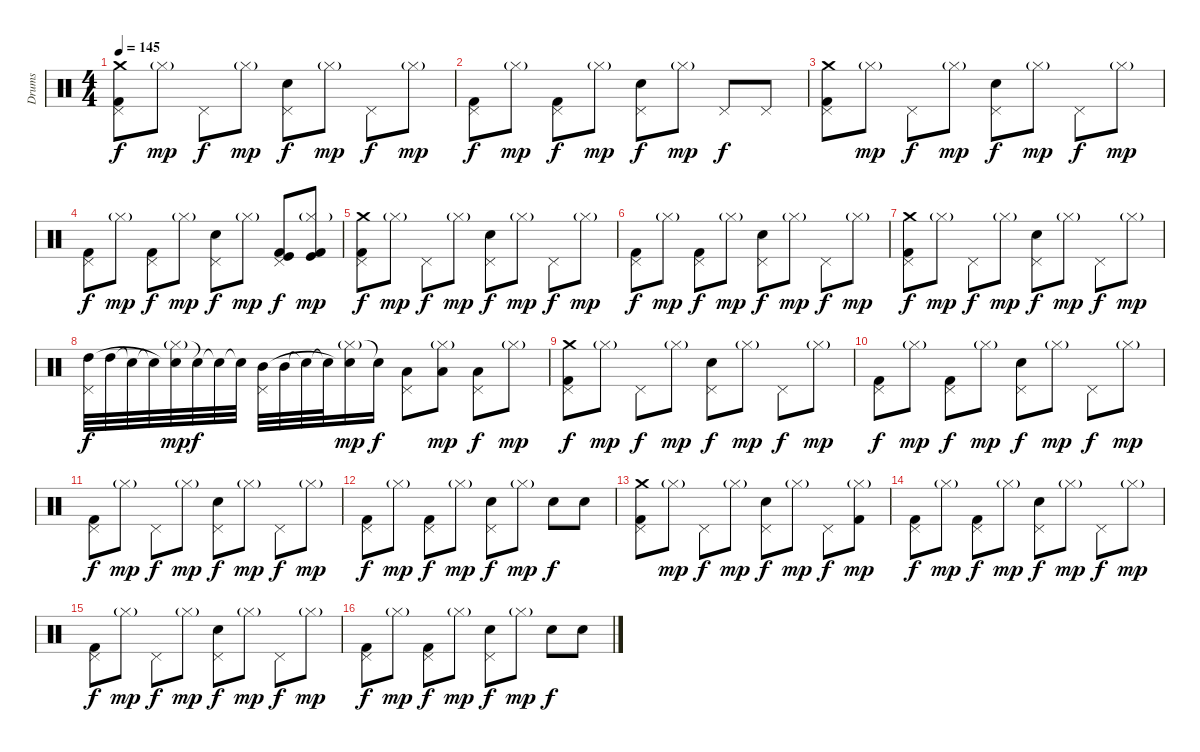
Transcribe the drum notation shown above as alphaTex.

\track ("Drums" "Drums") {instrument percussion}
\staff {score}
\articulation defaults
\ts (4 4)
\tempo 145
\clef neutral
\ks c
("Pedal Hi-Hat (hit)" "Crash medium (hit)" "Kick (hit) 2").8{dy f} "Hi-Hat (closed)"{g}.8{dy mp} "Pedal Hi-Hat (hit)".8{dy f} "Hi-Hat (closed)"{g}.8{dy mp} ("Pedal Hi-Hat (hit)" "Snare (hit) 2").8{dy f} "Hi-Hat (closed)"{g}.8{dy mp} "Pedal Hi-Hat (hit)".8{dy f} "Hi-Hat (closed)"{g}.8{dy mp} |
("Pedal Hi-Hat (hit)" "Kick (hit) 2").8{dy f} "Hi-Hat (closed)"{g}.8{dy mp} ("Pedal Hi-Hat (hit)" "Kick (hit) 2").8{dy f} "Hi-Hat (closed)"{g}.8{dy mp} ("Pedal Hi-Hat (hit)" "Snare (hit) 2").8{dy f} "Hi-Hat (closed)"{g}.8{dy mp} "Pedal Hi-Hat (hit)".8{dy f} "Pedal Hi-Hat (hit)".8 |
("Pedal Hi-Hat (hit)" "Crash medium (hit)" "Kick (hit) 2").8 "Hi-Hat (closed)"{g}.8{dy mp} "Pedal Hi-Hat (hit)".8{dy f} "Hi-Hat (closed)"{g}.8{dy mp} ("Pedal Hi-Hat (hit)" "Snare (hit) 2").8{dy f} "Hi-Hat (closed)"{g}.8{dy mp} "Pedal Hi-Hat (hit)".8{dy f} "Hi-Hat (closed)"{g}.8{dy mp} |
("Pedal Hi-Hat (hit)" "Kick (hit) 2").8{dy f} "Hi-Hat (closed)"{g}.8{dy mp} ("Pedal Hi-Hat (hit)" "Kick (hit) 2").8{dy f} "Hi-Hat (closed)"{g}.8{dy mp} ("Pedal Hi-Hat (hit)" "Snare (hit) 2").8{dy f} "Hi-Hat (closed)"{g}.8{dy mp} ("Pedal Hi-Hat (hit)" "Kick (hit)" "Kick (hit) 2").8{dy f} ("Hi-Hat (closed)"{g} "Kick (hit)" "Kick (hit) 2").8{dy mp} |
("Pedal Hi-Hat (hit)" "Crash medium (hit)" "Kick (hit) 2").8{dy f} "Hi-Hat (closed)"{g}.8{dy mp} "Pedal Hi-Hat (hit)".8{dy f} "Hi-Hat (closed)"{g}.8{dy mp} ("Pedal Hi-Hat (hit)" "Snare (hit) 2").8{dy f} "Hi-Hat (closed)"{g}.8{dy mp} "Pedal Hi-Hat (hit)".8{dy f} "Hi-Hat (closed)"{g}.8{dy mp} |
("Pedal Hi-Hat (hit)" "Kick (hit) 2").8{dy f} "Hi-Hat (closed)"{g}.8{dy mp} ("Pedal Hi-Hat (hit)" "Kick (hit) 2").8{dy f} "Hi-Hat (closed)"{g}.8{dy mp} ("Pedal Hi-Hat (hit)" "Snare (hit) 2").8{dy f} "Hi-Hat (closed)"{g}.8{dy mp} "Pedal Hi-Hat (hit)".8{dy f} "Hi-Hat (closed)"{g}.8{dy mp} |
("Pedal Hi-Hat (hit)" "Crash medium (hit)" "Kick (hit) 2").8{dy f} "Hi-Hat (closed)"{g}.8{dy mp} "Pedal Hi-Hat (hit)".8{dy f} "Hi-Hat (closed)"{g}.8{dy mp} ("Pedal Hi-Hat (hit)" "Snare (hit) 2").8{dy f} "Hi-Hat (closed)"{g}.8{dy mp} "Pedal Hi-Hat (hit)".8{dy f} "Hi-Hat (closed)"{g}.8{dy mp} |
("Pedal Hi-Hat (hit)" "High Tom (hit)").32{dy f} "High Tom (hit)".32 "Snare (hit)"{t}.32 "Snare (hit)"{t}.32 ("Hi-Hat (closed)"{g} "Snare (hit)"{t}).32{dy mp} "Snare (hit)"{t}.32{dy f} "Snare (hit)"{t}.32 "Snare (hit)"{t}.32 ("Pedal Hi-Hat (hit)" "Mid Tom (hit)").32 "Mid Tom (hit)".32 "Snare (hit)"{t}.32 "Snare (hit)"{t}.32 ("Hi-Hat (closed)"{g} "Snare (hit)"{t}).16{dy mp} "Snare (hit)"{t}.16{dy f} ("Pedal Hi-Hat (hit)" "Low Tom (hit)").8 ("Hi-Hat (closed)"{g} "Low Tom (hit)").8{dy mp} ("Pedal Hi-Hat (hit)" "Low Floor Tom (hit)").8{dy f} "Hi-Hat (closed)"{g}.8{dy mp} |
("Pedal Hi-Hat (hit)" "Crash medium (hit)" "Kick (hit) 2").8{dy f} "Hi-Hat (closed)"{g}.8{dy mp} "Pedal Hi-Hat (hit)".8{dy f} "Hi-Hat (closed)"{g}.8{dy mp} ("Pedal Hi-Hat (hit)" "Snare (hit) 2").8{dy f} "Hi-Hat (closed)"{g}.8{dy mp} "Pedal Hi-Hat (hit)".8{dy f} "Hi-Hat (closed)"{g}.8{dy mp} |
("Pedal Hi-Hat (hit)" "Kick (hit) 2").8{dy f} "Hi-Hat (closed)"{g}.8{dy mp} ("Pedal Hi-Hat (hit)" "Kick (hit) 2").8{dy f} "Hi-Hat (closed)"{g}.8{dy mp} ("Pedal Hi-Hat (hit)" "Snare (hit) 2").8{dy f} "Hi-Hat (closed)"{g}.8{dy mp} "Pedal Hi-Hat (hit)".8{dy f} "Hi-Hat (closed)"{g}.8{dy mp} |
("Pedal Hi-Hat (hit)" "Kick (hit) 2").8{dy f} "Hi-Hat (closed)"{g}.8{dy mp} "Pedal Hi-Hat (hit)".8{dy f} "Hi-Hat (closed)"{g}.8{dy mp} ("Pedal Hi-Hat (hit)" "Snare (hit) 2").8{dy f} "Hi-Hat (closed)"{g}.8{dy mp} "Pedal Hi-Hat (hit)".8{dy f} "Hi-Hat (closed)"{g}.8{dy mp} |
("Pedal Hi-Hat (hit)" "Kick (hit) 2").8{dy f} "Hi-Hat (closed)"{g}.8{dy mp} ("Pedal Hi-Hat (hit)" "Kick (hit) 2").8{dy f} "Hi-Hat (closed)"{g}.8{dy mp} ("Pedal Hi-Hat (hit)" "Snare (hit) 2").8{dy f} "Hi-Hat (closed)"{g}.8{dy mp} "Snare (hit) 2".8{dy f} "Snare (hit) 2".8 |
("Pedal Hi-Hat (hit)" "Crash medium (hit)" "Kick (hit) 2").8 "Hi-Hat (closed)"{g}.8{dy mp} "Pedal Hi-Hat (hit)".8{dy f} "Hi-Hat (closed)"{g}.8{dy mp} ("Pedal Hi-Hat (hit)" "Snare (hit) 2").8{dy f} "Hi-Hat (closed)"{g}.8{dy mp} "Pedal Hi-Hat (hit)".8{dy f} ("Hi-Hat (closed)"{g} "Kick (hit) 2").8{dy mp} |
("Pedal Hi-Hat (hit)" "Kick (hit) 2").8{dy f} "Hi-Hat (closed)"{g}.8{dy mp} ("Pedal Hi-Hat (hit)" "Kick (hit) 2").8{dy f} "Hi-Hat (closed)"{g}.8{dy mp} ("Pedal Hi-Hat (hit)" "Snare (hit) 2").8{dy f} "Hi-Hat (closed)"{g}.8{dy mp} "Pedal Hi-Hat (hit)".8{dy f} "Hi-Hat (closed)"{g}.8{dy mp} |
("Pedal Hi-Hat (hit)" "Kick (hit) 2").8{dy f} "Hi-Hat (closed)"{g}.8{dy mp} "Pedal Hi-Hat (hit)".8{dy f} "Hi-Hat (closed)"{g}.8{dy mp} ("Pedal Hi-Hat (hit)" "Snare (hit) 2").8{dy f} "Hi-Hat (closed)"{g}.8{dy mp} "Pedal Hi-Hat (hit)".8{dy f} "Hi-Hat (closed)"{g}.8{dy mp} |
("Pedal Hi-Hat (hit)" "Kick (hit) 2").8{dy f} "Hi-Hat (closed)"{g}.8{dy mp} ("Pedal Hi-Hat (hit)" "Kick (hit) 2").8{dy f} "Hi-Hat (closed)"{g}.8{dy mp} ("Pedal Hi-Hat (hit)" "Snare (hit) 2").8{dy f} "Hi-Hat (closed)"{g}.8{dy mp} "Snare (hit) 2".8{dy f} "Snare (hit) 2".8
